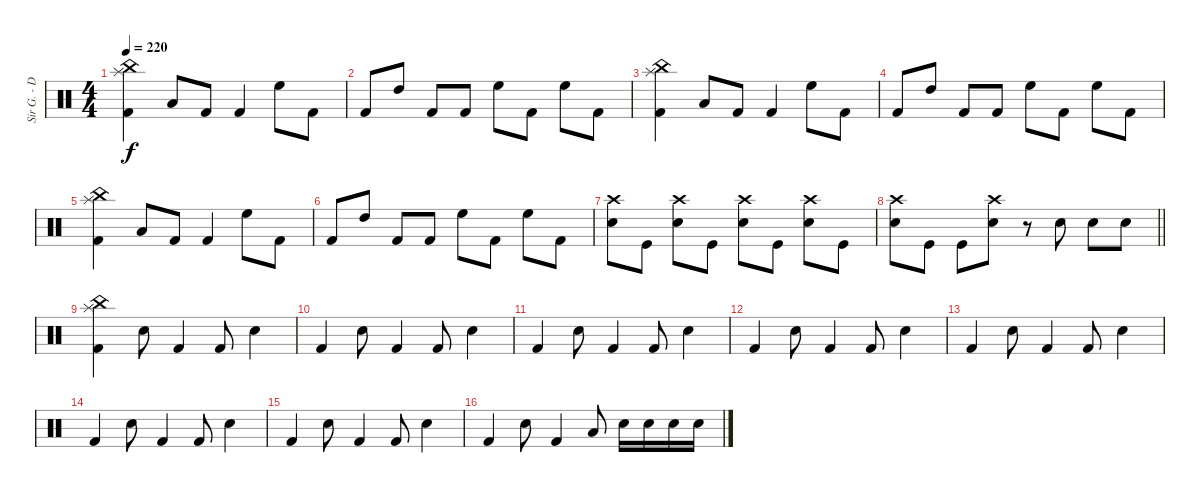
\track ("Sir G. - Drums" "Sir G. - D") {instrument percussion}
\staff {score}
\articulation defaults
\ts (4 4)
\tempo 220
\clef neutral
\ks c
("China (hit)" "Splash (hit)" "Kick (hit) 2").4{dy f} "Low Tom (hit)".8 "Kick (hit) 2".8 "Kick (hit) 2".4 "High Floor Tom (hit)".8 "Kick (hit) 2".8 |
"Kick (hit) 2".8 "High Tom (hit)".8 "Kick (hit) 2".8 "Kick (hit) 2".8 "High Floor Tom (hit)".8 "Kick (hit) 2".8 "High Floor Tom (hit)".8 "Kick (hit) 2".8 |
("China (hit)" "Splash (hit)" "Kick (hit) 2").4 "Low Tom (hit)".8 "Kick (hit) 2".8 "Kick (hit) 2".4 "High Floor Tom (hit)".8 "Kick (hit) 2".8 |
"Kick (hit) 2".8 "High Tom (hit)".8 "Kick (hit) 2".8 "Kick (hit) 2".8 "High Floor Tom (hit)".8 "Kick (hit) 2".8 "High Floor Tom (hit)".8 "Kick (hit) 2".8 |
("China (hit)" "Splash (hit)" "Kick (hit) 2").4 "Low Tom (hit)".8 "Kick (hit) 2".8 "Kick (hit) 2".4 "High Floor Tom (hit)".8 "Kick (hit) 2".8 |
"Kick (hit) 2".8 "High Tom (hit)".8 "Kick (hit) 2".8 "Kick (hit) 2".8 "High Floor Tom (hit)".8 "Kick (hit) 2".8 "High Floor Tom (hit)".8 "Kick (hit) 2".8 |
("Crash high (hit)" "Snare (hit) 2").8 "Kick (hit)".8 ("Crash high (hit)" "Snare (hit) 2").8 "Kick (hit)".8 ("Crash high (hit)" "Snare (hit) 2").8 "Kick (hit)".8 ("Crash high (hit)" "Snare (hit) 2").8 "Kick (hit)".8 |
\barLineRight lightlight
("Crash high (hit)" "Snare (hit) 2").8 "Kick (hit)".8 "Kick (hit)".8 ("Crash high (hit)" "Snare (hit) 2").8 r.8 "Snare (hit) 2".8 "Snare (hit) 2".8 "Snare (hit) 2".8 |
("China (hit)" "Splash (hit)" "Kick (hit) 2").4 "Snare (hit) 2".8 "Kick (hit) 2".4 "Kick (hit) 2".8 "Snare (hit) 2".4 |
"Kick (hit) 2".4 "Snare (hit) 2".8 "Kick (hit) 2".4 "Kick (hit) 2".8 "Snare (hit) 2".4 |
"Kick (hit) 2".4 "Snare (hit) 2".8 "Kick (hit) 2".4 "Kick (hit) 2".8 "Snare (hit) 2".4 |
"Kick (hit) 2".4 "Snare (hit) 2".8 "Kick (hit) 2".4 "Kick (hit) 2".8 "Snare (hit) 2".4 |
"Kick (hit) 2".4 "Snare (hit) 2".8 "Kick (hit) 2".4 "Kick (hit) 2".8 "Snare (hit) 2".4 |
"Kick (hit) 2".4 "Snare (hit) 2".8 "Kick (hit) 2".4 "Kick (hit) 2".8 "Snare (hit) 2".4 |
"Kick (hit) 2".4 "Snare (hit) 2".8 "Kick (hit) 2".4 "Kick (hit) 2".8 "Snare (hit) 2".4 |
"Kick (hit) 2".4 "Snare (hit) 2".8 "Kick (hit) 2".4 "Low Tom (hit)".8 "Snare (hit) 2".16 "Snare (hit) 2".16 "Snare (hit) 2".16 "Snare (hit) 2".16
